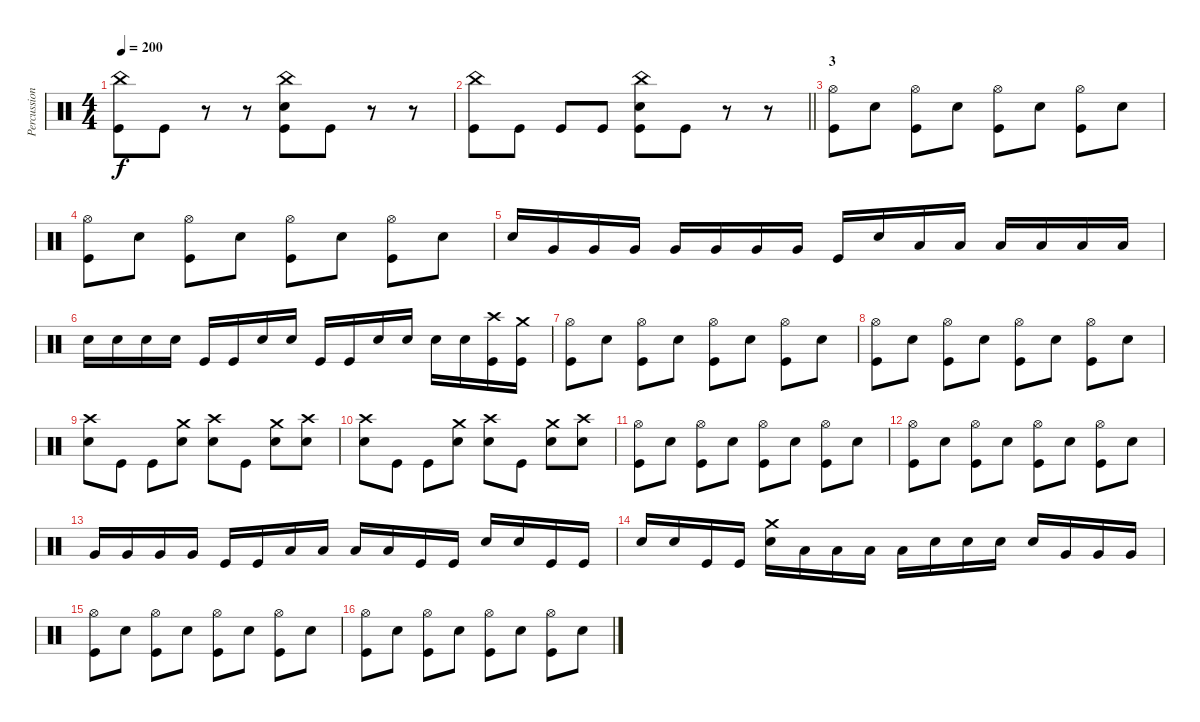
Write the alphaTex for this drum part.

\track ("Percussion" "Percussion") {instrument percussion}
\staff {score}
\articulation defaults
\ts (4 4)
\tempo 200
\clef neutral
\ks c
("China (hit)" "Kick (hit)").8{dy f} "Kick (hit)".8 r.8 r.8 ("China (hit)" "Snare (hit) 2" "Kick (hit)").8 "Kick (hit)".8 r.8 r.8 |
\barLineRight lightlight
("China (hit)" "Kick (hit)").8 "Kick (hit)".8 "Kick (hit)".8 "Kick (hit)".8 ("China (hit)" "Snare (hit) 2" "Kick (hit)").8 "Kick (hit)".8 r.8 r.8 |
\section ("" "3")
("Hi-Hat (open)" "Kick (hit)").8 "Snare (hit) 2".8 ("Hi-Hat (open)" "Kick (hit)").8 "Snare (hit) 2".8 ("Hi-Hat (open)" "Kick (hit)").8 "Snare (hit) 2".8 ("Hi-Hat (open)" "Kick (hit)").8 "Snare (hit) 2".8 |
("Hi-Hat (open)" "Kick (hit)").8 "Snare (hit) 2".8 ("Hi-Hat (open)" "Kick (hit)").8 "Snare (hit) 2".8 ("Hi-Hat (open)" "Kick (hit)").8 "Snare (hit) 2".8 ("Hi-Hat (open)" "Kick (hit)").8 "Snare (hit) 2".8 |
"Snare (hit) 2".16 "Very Low Tom (hit)".16 "Very Low Tom (hit)".16 "Very Low Tom (hit)".16 "Very Low Tom (hit)".16 "Very Low Tom (hit)".16 "Very Low Tom (hit)".16 "Very Low Tom (hit)".16 "Kick (hit)".16 "Snare (hit) 2".16 "Low Floor Tom (hit)".16 "Low Floor Tom (hit)".16 "Low Floor Tom (hit)".16 "Low Floor Tom (hit)".16 "Low Floor Tom (hit)".16 "Low Floor Tom (hit)".16 |
"Snare (hit) 2".16 "Snare (hit) 2".16 "Snare (hit) 2".16 "Snare (hit) 2".16 "Kick (hit)".16 "Kick (hit)".16 "Snare (hit) 2".16 "Snare (hit) 2".16 "Kick (hit)".16 "Kick (hit)".16 "Snare (hit) 2".16 "Snare (hit) 2".16 "Snare (hit) 2".16 "Snare (hit) 2".16 ("Crash high (hit)" "Kick (hit)").16 ("Crash medium (hit)" "Kick (hit)").16 |
("Hi-Hat (open)" "Kick (hit)").8 "Snare (hit) 2".8 ("Hi-Hat (open)" "Kick (hit)").8 "Snare (hit) 2".8 ("Hi-Hat (open)" "Kick (hit)").8 "Snare (hit) 2".8 ("Hi-Hat (open)" "Kick (hit)").8 "Snare (hit) 2".8 |
("Hi-Hat (open)" "Kick (hit)").8 "Snare (hit) 2".8 ("Hi-Hat (open)" "Kick (hit)").8 "Snare (hit) 2".8 ("Hi-Hat (open)" "Kick (hit)").8 "Snare (hit) 2".8 ("Hi-Hat (open)" "Kick (hit)").8 "Snare (hit) 2".8 |
("Crash high (hit)" "Snare (hit) 2").8 "Kick (hit)".8 "Kick (hit)".8 ("Crash medium (hit)" "Snare (hit) 2").8 ("Crash high (hit)" "Snare (hit) 2").8 "Kick (hit)".8 ("Crash medium (hit)" "Snare (hit) 2").8 ("Crash high (hit)" "Snare (hit) 2").8 |
("Crash high (hit)" "Snare (hit) 2").8 "Kick (hit)".8 "Kick (hit)".8 ("Crash medium (hit)" "Snare (hit) 2").8 ("Crash high (hit)" "Snare (hit) 2").8 "Kick (hit)".8 ("Crash medium (hit)" "Snare (hit) 2").8 ("Crash high (hit)" "Snare (hit) 2").8 |
("Hi-Hat (open)" "Kick (hit)").8 "Snare (hit) 2".8 ("Hi-Hat (open)" "Kick (hit)").8 "Snare (hit) 2".8 ("Hi-Hat (open)" "Kick (hit)").8 "Snare (hit) 2".8 ("Hi-Hat (open)" "Kick (hit)").8 "Snare (hit) 2".8 |
("Hi-Hat (open)" "Kick (hit)").8 "Snare (hit) 2".8 ("Hi-Hat (open)" "Kick (hit)").8 "Snare (hit) 2".8 ("Hi-Hat (open)" "Kick (hit)").8 "Snare (hit) 2".8 ("Hi-Hat (open)" "Kick (hit)").8 "Snare (hit) 2".8 |
"Very Low Tom (hit)".16 "Very Low Tom (hit)".16 "Very Low Tom (hit)".16 "Very Low Tom (hit)".16 "Kick (hit)".16 "Kick (hit)".16 "Low Floor Tom (hit)".16 "Low Floor Tom (hit)".16 "Low Floor Tom (hit)".16 "Low Floor Tom (hit)".16 "Kick (hit)".16 "Kick (hit)".16 "Snare (hit) 2".16 "Snare (hit) 2".16 "Kick (hit)".16 "Kick (hit)".16 |
"Snare (hit) 2".16 "Snare (hit) 2".16 "Kick (hit)".16 "Kick (hit)".16 ("Crash medium (hit)" "Snare (hit) 2").16 "Low Floor Tom (hit)".16 "Low Floor Tom (hit)".16 "Low Floor Tom (hit)".16 "Low Floor Tom (hit)".16 "Snare (hit) 2".16 "Snare (hit) 2".16 "Snare (hit) 2".16 "Snare (hit) 2".16 "Very Low Tom (hit)".16 "Very Low Tom (hit)".16 "Very Low Tom (hit)".16 |
("Hi-Hat (open)" "Kick (hit)").8 "Snare (hit) 2".8 ("Hi-Hat (open)" "Kick (hit)").8 "Snare (hit) 2".8 ("Hi-Hat (open)" "Kick (hit)").8 "Snare (hit) 2".8 ("Hi-Hat (open)" "Kick (hit)").8 "Snare (hit) 2".8 |
("Hi-Hat (open)" "Kick (hit)").8 "Snare (hit) 2".8 ("Hi-Hat (open)" "Kick (hit)").8 "Snare (hit) 2".8 ("Hi-Hat (open)" "Kick (hit)").8 "Snare (hit) 2".8 ("Hi-Hat (open)" "Kick (hit)").8 "Snare (hit) 2".8
